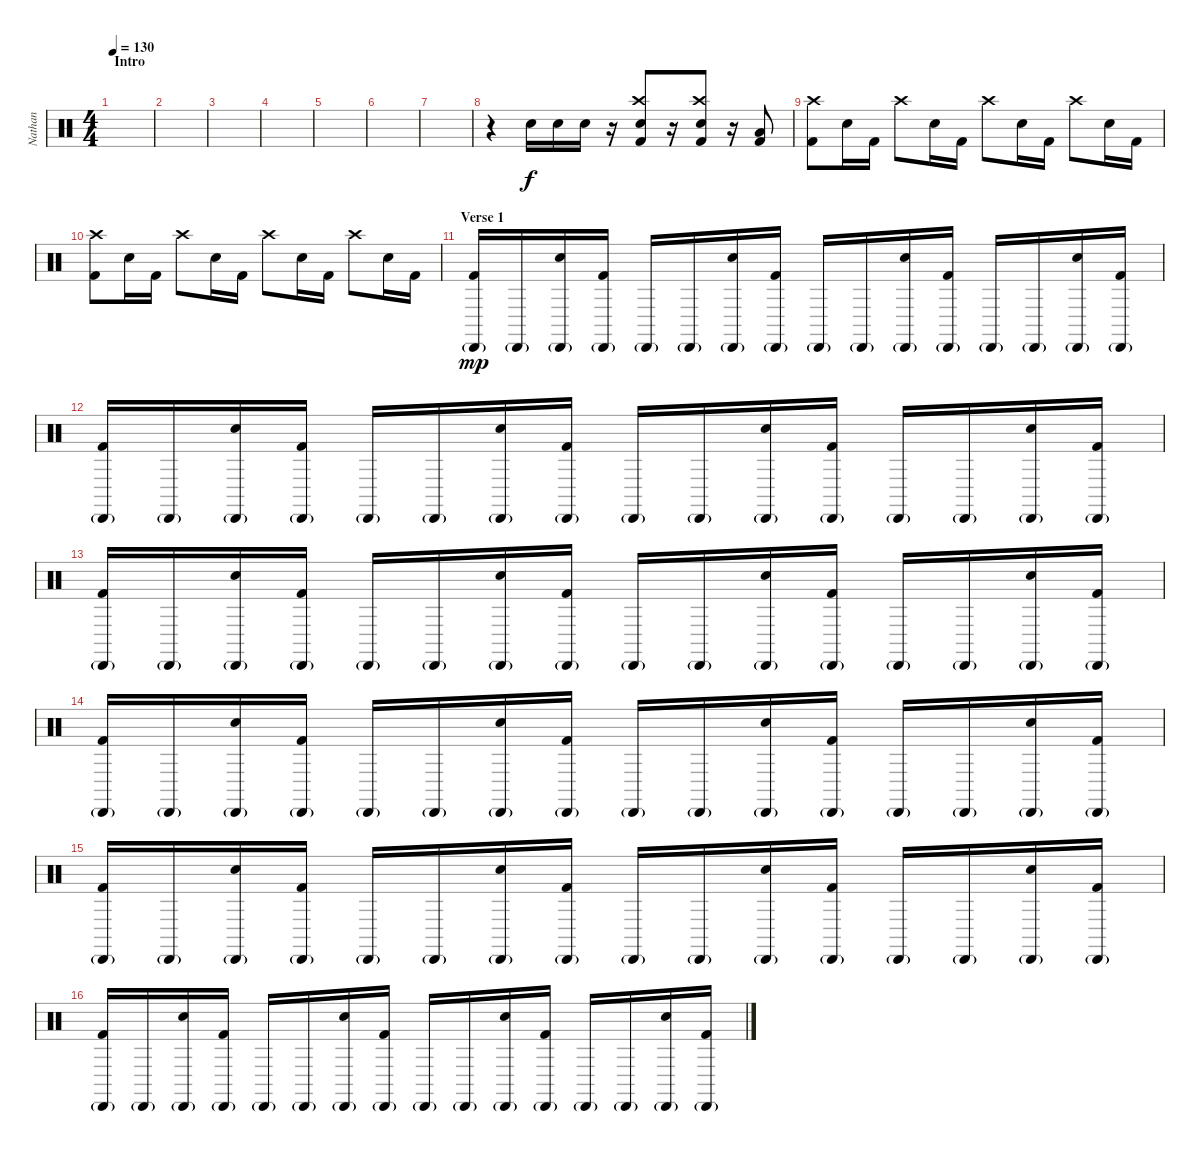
\track ("Nathan" "Nathan") {instrument percussion}
\staff {score}
\articulation defaults
\ts (4 4)
\section ("" "Intro")
\tempo 130
\clef neutral
\ks c
|
|
|
|
|
|
|
r.4 "Snare (hit) 2".16 "Snare (hit) 2".16 "Snare (hit) 2".16 r.16 ("Crash high (hit)" "Snare (hit) 2" "Kick (hit) 2").8 r.16 ("Crash high (hit)" "Snare (hit) 2" "Kick (hit) 2").8 r.16 ("Low Floor Tom (hit)" "Kick (hit) 2").8 |
("Crash high (hit)" "Kick (hit) 2").8 "Snare (hit) 2".16 "Kick (hit) 2".16 "Crash high (hit)".8 "Snare (hit) 2".16 "Kick (hit) 2".16 "Crash high (hit)".8 "Snare (hit) 2".16 "Kick (hit) 2".16 "Crash high (hit)".8 "Snare (hit) 2".16 "Kick (hit) 2".16 |
("Crash high (hit)" "Kick (hit) 2").8 "Snare (hit) 2".16 "Kick (hit) 2".16 "Crash high (hit)".8 "Snare (hit) 2".16 "Kick (hit) 2".16 "Crash high (hit)".8 "Snare (hit) 2".16 "Kick (hit) 2".16 "Crash high (hit)".8 "Snare (hit) 2".16 "Kick (hit) 2".16 |
\section ("" "Verse 1")
("Cabasa (hit)"{g} "Kick (hit) 2").16{dy mp} "Cabasa (hit)"{g}.16 ("Cabasa (hit)"{g} "Snare (hit) 2").16 ("Cabasa (hit)"{g} "Kick (hit) 2").16 "Cabasa (hit)"{g}.16 "Cabasa (hit)"{g}.16 ("Cabasa (hit)"{g} "Snare (hit) 2").16 ("Cabasa (hit)"{g} "Kick (hit) 2").16 "Cabasa (hit)"{g}.16 "Cabasa (hit)"{g}.16 ("Cabasa (hit)"{g} "Snare (hit) 2").16 ("Cabasa (hit)"{g} "Kick (hit) 2").16 "Cabasa (hit)"{g}.16 "Cabasa (hit)"{g}.16 ("Cabasa (hit)"{g} "Snare (hit) 2").16 ("Cabasa (hit)"{g} "Kick (hit) 2").16 |
("Cabasa (hit)"{g} "Kick (hit) 2").16 "Cabasa (hit)"{g}.16 ("Cabasa (hit)"{g} "Snare (hit) 2").16 ("Cabasa (hit)"{g} "Kick (hit) 2").16 "Cabasa (hit)"{g}.16 "Cabasa (hit)"{g}.16 ("Cabasa (hit)"{g} "Snare (hit) 2").16 ("Cabasa (hit)"{g} "Kick (hit) 2").16 "Cabasa (hit)"{g}.16 "Cabasa (hit)"{g}.16 ("Cabasa (hit)"{g} "Snare (hit) 2").16 ("Cabasa (hit)"{g} "Kick (hit) 2").16 "Cabasa (hit)"{g}.16 "Cabasa (hit)"{g}.16 ("Cabasa (hit)"{g} "Snare (hit) 2").16 ("Cabasa (hit)"{g} "Kick (hit) 2").16 |
("Cabasa (hit)"{g} "Kick (hit) 2").16 "Cabasa (hit)"{g}.16 ("Cabasa (hit)"{g} "Snare (hit) 2").16 ("Cabasa (hit)"{g} "Kick (hit) 2").16 "Cabasa (hit)"{g}.16 "Cabasa (hit)"{g}.16 ("Cabasa (hit)"{g} "Snare (hit) 2").16 ("Cabasa (hit)"{g} "Kick (hit) 2").16 "Cabasa (hit)"{g}.16 "Cabasa (hit)"{g}.16 ("Cabasa (hit)"{g} "Snare (hit) 2").16 ("Cabasa (hit)"{g} "Kick (hit) 2").16 "Cabasa (hit)"{g}.16 "Cabasa (hit)"{g}.16 ("Cabasa (hit)"{g} "Snare (hit) 2").16 ("Cabasa (hit)"{g} "Kick (hit) 2").16 |
("Cabasa (hit)"{g} "Kick (hit) 2").16 "Cabasa (hit)"{g}.16 ("Cabasa (hit)"{g} "Snare (hit) 2").16 ("Cabasa (hit)"{g} "Kick (hit) 2").16 "Cabasa (hit)"{g}.16 "Cabasa (hit)"{g}.16 ("Cabasa (hit)"{g} "Snare (hit) 2").16 ("Cabasa (hit)"{g} "Kick (hit) 2").16 "Cabasa (hit)"{g}.16 "Cabasa (hit)"{g}.16 ("Cabasa (hit)"{g} "Snare (hit) 2").16 ("Cabasa (hit)"{g} "Kick (hit) 2").16 "Cabasa (hit)"{g}.16 "Cabasa (hit)"{g}.16 ("Cabasa (hit)"{g} "Snare (hit) 2").16 ("Cabasa (hit)"{g} "Kick (hit) 2").16 |
("Cabasa (hit)"{g} "Kick (hit) 2").16 "Cabasa (hit)"{g}.16 ("Cabasa (hit)"{g} "Snare (hit) 2").16 ("Cabasa (hit)"{g} "Kick (hit) 2").16 "Cabasa (hit)"{g}.16 "Cabasa (hit)"{g}.16 ("Cabasa (hit)"{g} "Snare (hit) 2").16 ("Cabasa (hit)"{g} "Kick (hit) 2").16 "Cabasa (hit)"{g}.16 "Cabasa (hit)"{g}.16 ("Cabasa (hit)"{g} "Snare (hit) 2").16 ("Cabasa (hit)"{g} "Kick (hit) 2").16 "Cabasa (hit)"{g}.16 "Cabasa (hit)"{g}.16 ("Cabasa (hit)"{g} "Snare (hit) 2").16 ("Cabasa (hit)"{g} "Kick (hit) 2").16 |
("Cabasa (hit)"{g} "Kick (hit) 2").16 "Cabasa (hit)"{g}.16 ("Cabasa (hit)"{g} "Snare (hit) 2").16 ("Cabasa (hit)"{g} "Kick (hit) 2").16 "Cabasa (hit)"{g}.16 "Cabasa (hit)"{g}.16 ("Cabasa (hit)"{g} "Snare (hit) 2").16 ("Cabasa (hit)"{g} "Kick (hit) 2").16 "Cabasa (hit)"{g}.16 "Cabasa (hit)"{g}.16 ("Cabasa (hit)"{g} "Snare (hit) 2").16 ("Cabasa (hit)"{g} "Kick (hit) 2").16 "Cabasa (hit)"{g}.16 "Cabasa (hit)"{g}.16 ("Cabasa (hit)"{g} "Snare (hit) 2").16 ("Cabasa (hit)"{g} "Kick (hit) 2").16
